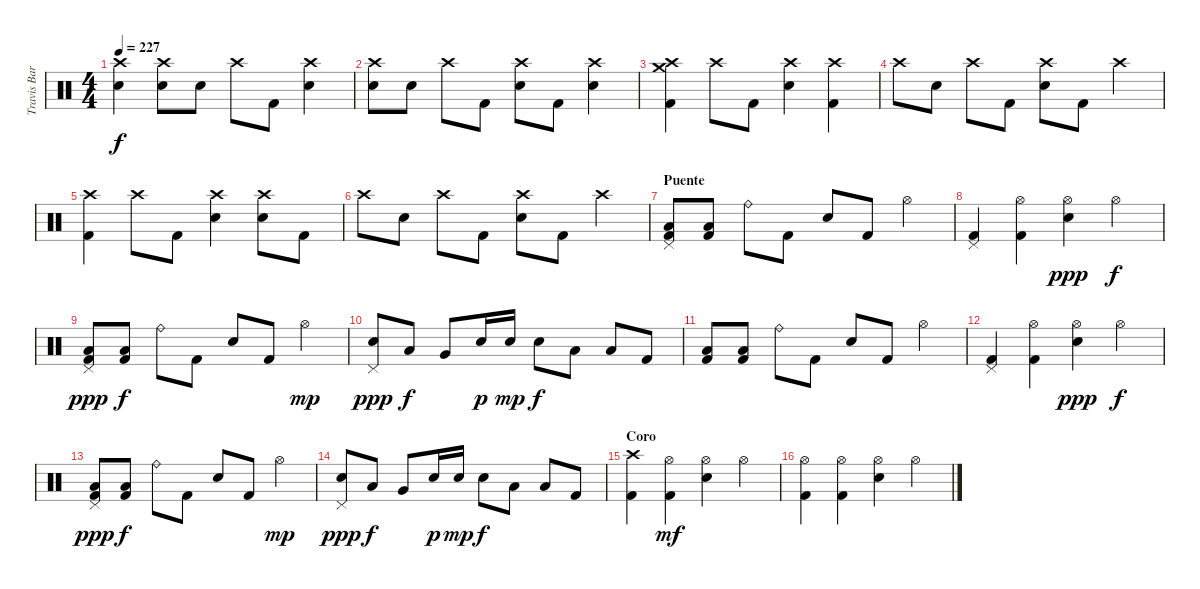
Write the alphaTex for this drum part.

\track ("Travis Barker - Batería" "Travis Bar") {instrument percussion}
\staff {score}
\articulation defaults
\ts (4 4)
\tempo 227
\clef neutral
\ks c
("Crash high (hit)" "Electric Snare (hit)").4{dy f} ("Crash high (hit)" "Electric Snare (hit)").8 "Electric Snare (hit)".8 "Crash high (hit)".8 "Kick (hit) 2".8 ("Crash high (hit)" "Electric Snare (hit)").4 |
("Crash high (hit)" "Electric Snare (hit)").8 "Electric Snare (hit)".8 "Crash high (hit)".8 "Kick (hit) 2".8 ("Crash high (hit)" "Electric Snare (hit)").8 "Kick (hit) 2".8 ("Crash high (hit)" "Electric Snare (hit)").4 |
("Crash medium (hit)" "Crash high (hit)" "Kick (hit) 2").4 "Crash high (hit)".8 "Kick (hit) 2".8 ("Crash high (hit)" "Electric Snare (hit)").4 ("Crash high (hit)" "Kick (hit) 2").4 |
"Crash high (hit)".8 "Electric Snare (hit)".8 "Crash high (hit)".8 "Kick (hit) 2".8 ("Crash high (hit)" "Electric Snare (hit)").8 "Kick (hit) 2".8 "Crash high (hit)".4 |
("Crash high (hit)" "Kick (hit) 2").4 "Crash high (hit)".8 "Kick (hit) 2".8 ("Crash high (hit)" "Electric Snare (hit)").4 ("Crash high (hit)" "Electric Snare (hit)").8 "Kick (hit) 2".8 |
"Crash high (hit)".8 "Electric Snare (hit)".8 "Crash high (hit)".8 "Kick (hit) 2".8 ("Crash high (hit)" "Electric Snare (hit)").8 "Kick (hit) 2".8 "Crash high (hit)".4 |
\section ("" "Puente")
("Pedal Hi-Hat (hit)" "Low Floor Tom (hit)" "Kick (hit) 2").8 ("Low Floor Tom (hit)" "Kick (hit) 2").8 "Ride (bell)".8 "Kick (hit) 2".8 "Electric Snare (hit)".8 "Kick (hit) 2".8 "Hi-Hat (open)".4 |
("Pedal Hi-Hat (hit)" "Kick (hit) 2").4 ("Hi-Hat (open)" "Kick (hit) 2").4 ("Hi-Hat (open)" "Electric Snare (hit)").4{dy ppp} "Hi-Hat (open)".4{dy f} |
("Pedal Hi-Hat (hit)" "Low Floor Tom (hit)" "Kick (hit) 2").8{dy ppp} ("Low Floor Tom (hit)" "Kick (hit) 2").8{dy f} "Ride (bell)".8 "Kick (hit) 2".8 "Electric Snare (hit)".8 "Kick (hit) 2".8 "Hi-Hat (open)".4{dy mp} |
("Pedal Hi-Hat (hit)" "Electric Snare (hit)").8{dy ppp} "Low Tom (hit)".8{dy f} "Very Low Tom (hit)".8 "Electric Snare (hit)".16{dy p} "Electric Snare (hit)".16{dy mp} "Electric Snare (hit)".8{dy f} "Low Tom (hit)".8 "Low Floor Tom (hit)".8 "Kick (hit) 2".8 |
("Low Floor Tom (hit)" "Kick (hit) 2").8 ("Low Floor Tom (hit)" "Kick (hit) 2").8 "Ride (bell)".8 "Kick (hit) 2".8 "Electric Snare (hit)".8 "Kick (hit) 2".8 "Hi-Hat (open)".4 |
("Pedal Hi-Hat (hit)" "Kick (hit) 2").4 ("Hi-Hat (open)" "Kick (hit) 2").4 ("Hi-Hat (open)" "Electric Snare (hit)").4{dy ppp} "Hi-Hat (open)".4{dy f} |
("Pedal Hi-Hat (hit)" "Low Floor Tom (hit)" "Kick (hit) 2").8{dy ppp} ("Low Floor Tom (hit)" "Kick (hit) 2").8{dy f} "Ride (bell)".8 "Kick (hit) 2".8 "Electric Snare (hit)".8 "Kick (hit) 2".8 "Hi-Hat (open)".4{dy mp} |
("Pedal Hi-Hat (hit)" "Electric Snare (hit)").8{dy ppp} "Low Tom (hit)".8{dy f} "Very Low Tom (hit)".8 "Electric Snare (hit)".16{dy p} "Electric Snare (hit)".16{dy mp} "Electric Snare (hit)".8{dy f} "Low Tom (hit)".8 "Low Floor Tom (hit)".8 "Kick (hit) 2".8 |
\section ("" "Coro")
("Crash high (hit)" "Kick (hit) 2").4 ("Hi-Hat (open)" "Kick (hit) 2").4{dy mf} ("Hi-Hat (open)" "Electric Snare (hit)").4 "Hi-Hat (open)".4 |
("Hi-Hat (open)" "Kick (hit) 2").4 ("Hi-Hat (open)" "Kick (hit) 2").4 ("Hi-Hat (open)" "Electric Snare (hit)").4 "Hi-Hat (open)".4
